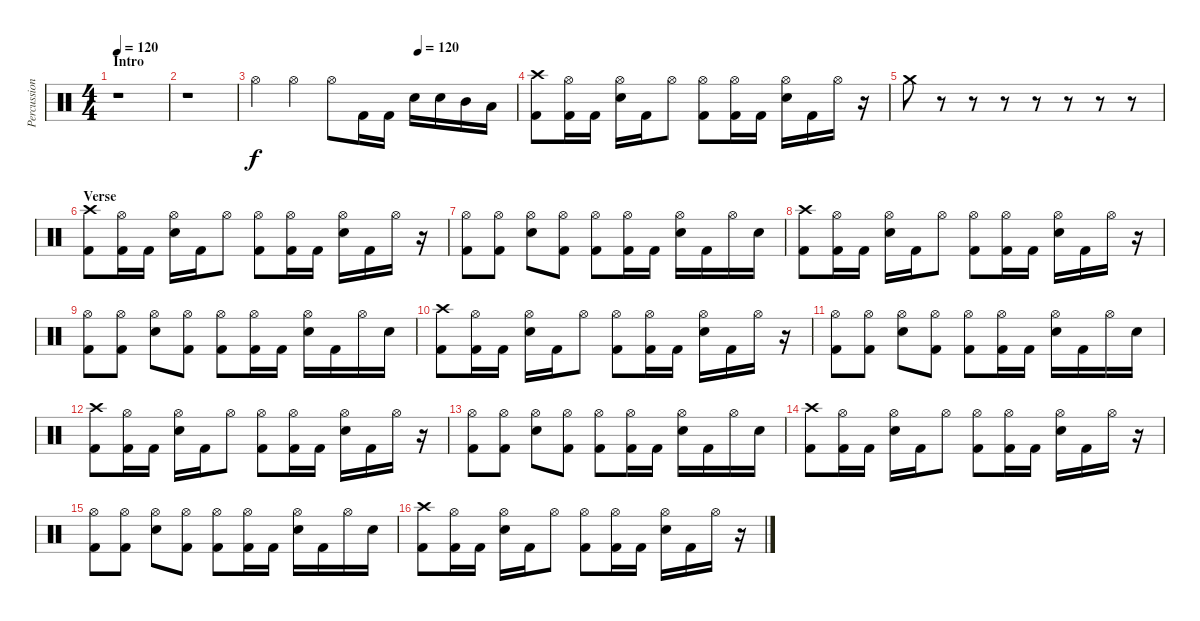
\track ("Percussion" "Percussion") {instrument percussion}
\staff {score}
\articulation defaults
\ts (4 4)
\section ("" "Intro")
\tempo 120
\tempo 110
\tempo 120
\clef neutral
\ks c
r.1{dy f} |
r.1 |
\tempo (120 0.625)
"Hi-Hat (open)".4 "Hi-Hat (open)".4 "Hi-Hat (open)".8 "Kick (hit) 2".16 "Kick (hit) 2".16 "Electric Snare (hit)".16 "Electric Snare (hit)".16 "Mid Tom (hit)".16 "Low Tom (hit)".16 |
("Crash high (hit)" "Kick (hit) 2").8 ("Hi-Hat (open)" "Kick (hit) 2").16 "Kick (hit) 2".16 ("Hi-Hat (open)" "Electric Snare (hit)").16 "Kick (hit) 2".16 "Hi-Hat (open)".8 ("Hi-Hat (open)" "Kick (hit) 2").8 ("Hi-Hat (open)" "Kick (hit) 2").16 "Kick (hit) 2".16 ("Hi-Hat (open)" "Electric Snare (hit)").16 "Kick (hit) 2".16 "Hi-Hat (open)".16 r.16 |
"Crash medium (hit)".8 r.8 r.8 r.8 r.8 r.8 r.8 r.8 |
\section ("" "Verse")
("Crash high (hit)" "Kick (hit) 2").8 ("Hi-Hat (open)" "Kick (hit) 2").16 "Kick (hit) 2".16 ("Hi-Hat (open)" "Electric Snare (hit)").16 "Kick (hit) 2".16 "Hi-Hat (open)".8 ("Hi-Hat (open)" "Kick (hit) 2").8 ("Hi-Hat (open)" "Kick (hit) 2").16 "Kick (hit) 2".16 ("Hi-Hat (open)" "Electric Snare (hit)").16 "Kick (hit) 2".16 "Hi-Hat (open)".16 r.16 |
("Hi-Hat (open)" "Kick (hit) 2").8 ("Hi-Hat (open)" "Kick (hit) 2").8 ("Hi-Hat (open)" "Electric Snare (hit)").8 ("Hi-Hat (open)" "Kick (hit) 2").8 ("Hi-Hat (open)" "Kick (hit) 2").8 ("Hi-Hat (open)" "Kick (hit) 2").16 "Kick (hit) 2".16 ("Hi-Hat (open)" "Electric Snare (hit)").16 "Kick (hit) 2".16 "Hi-Hat (open)".16 "Electric Snare (hit)".16 |
("Crash high (hit)" "Kick (hit) 2").8 ("Hi-Hat (open)" "Kick (hit) 2").16 "Kick (hit) 2".16 ("Hi-Hat (open)" "Electric Snare (hit)").16 "Kick (hit) 2".16 "Hi-Hat (open)".8 ("Hi-Hat (open)" "Kick (hit) 2").8 ("Hi-Hat (open)" "Kick (hit) 2").16 "Kick (hit) 2".16 ("Hi-Hat (open)" "Electric Snare (hit)").16 "Kick (hit) 2".16 "Hi-Hat (open)".16 r.16 |
("Hi-Hat (open)" "Kick (hit) 2").8 ("Hi-Hat (open)" "Kick (hit) 2").8 ("Hi-Hat (open)" "Electric Snare (hit)").8 ("Hi-Hat (open)" "Kick (hit) 2").8 ("Hi-Hat (open)" "Kick (hit) 2").8 ("Hi-Hat (open)" "Kick (hit) 2").16 "Kick (hit) 2".16 ("Hi-Hat (open)" "Electric Snare (hit)").16 "Kick (hit) 2".16 "Hi-Hat (open)".16 "Electric Snare (hit)".16 |
("Crash high (hit)" "Kick (hit) 2").8 ("Hi-Hat (open)" "Kick (hit) 2").16 "Kick (hit) 2".16 ("Hi-Hat (open)" "Electric Snare (hit)").16 "Kick (hit) 2".16 "Hi-Hat (open)".8 ("Hi-Hat (open)" "Kick (hit) 2").8 ("Hi-Hat (open)" "Kick (hit) 2").16 "Kick (hit) 2".16 ("Hi-Hat (open)" "Electric Snare (hit)").16 "Kick (hit) 2".16 "Hi-Hat (open)".16 r.16 |
("Hi-Hat (open)" "Kick (hit) 2").8 ("Hi-Hat (open)" "Kick (hit) 2").8 ("Hi-Hat (open)" "Electric Snare (hit)").8 ("Hi-Hat (open)" "Kick (hit) 2").8 ("Hi-Hat (open)" "Kick (hit) 2").8 ("Hi-Hat (open)" "Kick (hit) 2").16 "Kick (hit) 2".16 ("Hi-Hat (open)" "Electric Snare (hit)").16 "Kick (hit) 2".16 "Hi-Hat (open)".16 "Electric Snare (hit)".16 |
("Crash high (hit)" "Kick (hit) 2").8 ("Hi-Hat (open)" "Kick (hit) 2").16 "Kick (hit) 2".16 ("Hi-Hat (open)" "Electric Snare (hit)").16 "Kick (hit) 2".16 "Hi-Hat (open)".8 ("Hi-Hat (open)" "Kick (hit) 2").8 ("Hi-Hat (open)" "Kick (hit) 2").16 "Kick (hit) 2".16 ("Hi-Hat (open)" "Electric Snare (hit)").16 "Kick (hit) 2".16 "Hi-Hat (open)".16 r.16 |
("Hi-Hat (open)" "Kick (hit) 2").8 ("Hi-Hat (open)" "Kick (hit) 2").8 ("Hi-Hat (open)" "Electric Snare (hit)").8 ("Hi-Hat (open)" "Kick (hit) 2").8 ("Hi-Hat (open)" "Kick (hit) 2").8 ("Hi-Hat (open)" "Kick (hit) 2").16 "Kick (hit) 2".16 ("Hi-Hat (open)" "Electric Snare (hit)").16 "Kick (hit) 2".16 "Hi-Hat (open)".16 "Electric Snare (hit)".16 |
("Crash high (hit)" "Kick (hit) 2").8 ("Hi-Hat (open)" "Kick (hit) 2").16 "Kick (hit) 2".16 ("Hi-Hat (open)" "Electric Snare (hit)").16 "Kick (hit) 2".16 "Hi-Hat (open)".8 ("Hi-Hat (open)" "Kick (hit) 2").8 ("Hi-Hat (open)" "Kick (hit) 2").16 "Kick (hit) 2".16 ("Hi-Hat (open)" "Electric Snare (hit)").16 "Kick (hit) 2".16 "Hi-Hat (open)".16 r.16 |
("Hi-Hat (open)" "Kick (hit) 2").8 ("Hi-Hat (open)" "Kick (hit) 2").8 ("Hi-Hat (open)" "Electric Snare (hit)").8 ("Hi-Hat (open)" "Kick (hit) 2").8 ("Hi-Hat (open)" "Kick (hit) 2").8 ("Hi-Hat (open)" "Kick (hit) 2").16 "Kick (hit) 2".16 ("Hi-Hat (open)" "Electric Snare (hit)").16 "Kick (hit) 2".16 "Hi-Hat (open)".16 "Electric Snare (hit)".16 |
("Crash high (hit)" "Kick (hit) 2").8 ("Hi-Hat (open)" "Kick (hit) 2").16 "Kick (hit) 2".16 ("Hi-Hat (open)" "Electric Snare (hit)").16 "Kick (hit) 2".16 "Hi-Hat (open)".8 ("Hi-Hat (open)" "Kick (hit) 2").8 ("Hi-Hat (open)" "Kick (hit) 2").16 "Kick (hit) 2".16 ("Hi-Hat (open)" "Electric Snare (hit)").16 "Kick (hit) 2".16 "Hi-Hat (open)".16 r.16
